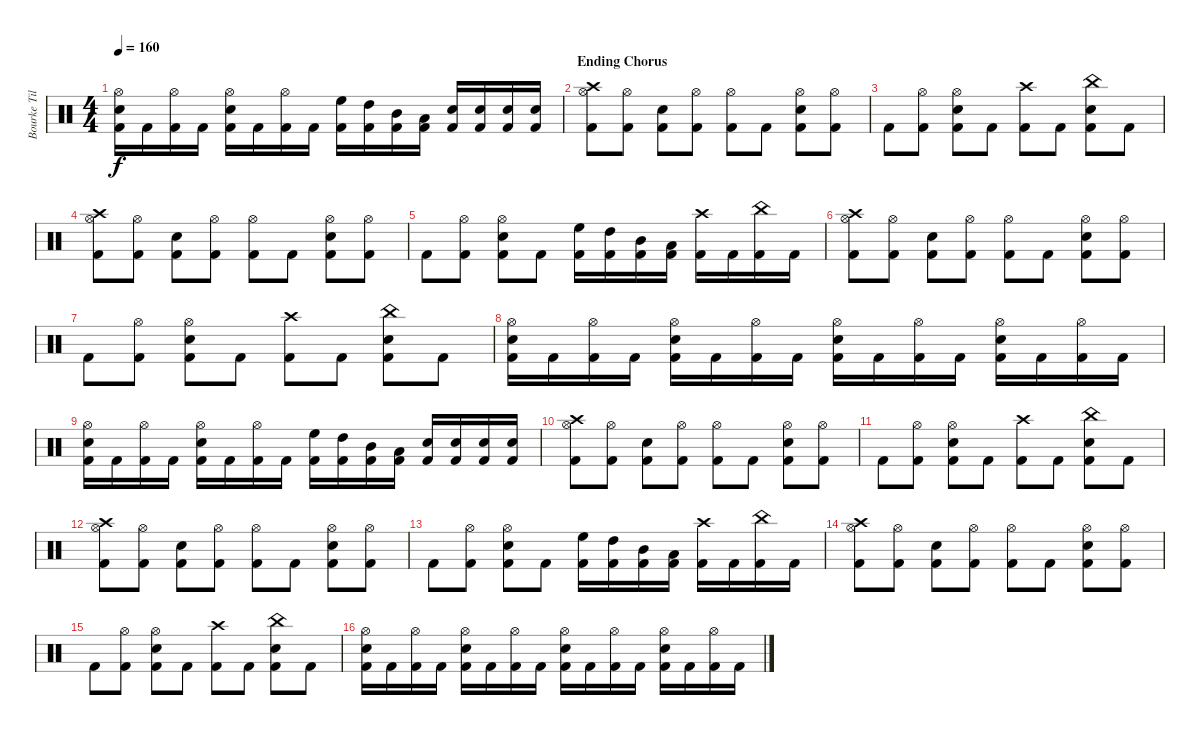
\track ("Bourke Tillman" "Bourke Til") {instrument percussion}
\staff {score}
\articulation defaults
\ts (4 4)
\tempo 160
\clef neutral
\ks c
("Hi-Hat (open)" "Electric Snare (hit)" "Kick (hit) 2").16{dy f} "Kick (hit) 2".16 ("Hi-Hat (open)" "Kick (hit) 2").16 "Kick (hit) 2".16 ("Hi-Hat (open)" "Electric Snare (hit)" "Kick (hit) 2").16 "Kick (hit) 2".16 ("Hi-Hat (open)" "Kick (hit) 2").16 "Kick (hit) 2".16 ("High Floor Tom (hit)" "Kick (hit) 2").16 ("High Tom (hit)" "Kick (hit) 2").16 ("Mid Tom (hit)" "Kick (hit) 2").16 ("Low Tom (hit)" "Kick (hit) 2").16 ("Electric Snare (hit)" "Kick (hit) 2").16 ("Electric Snare (hit)" "Kick (hit) 2").16 ("Electric Snare (hit)" "Kick (hit) 2").16 ("Electric Snare (hit)" "Kick (hit) 2").16 |
\section ("" "Ending Chorus")
("Crash high (hit)" "Hi-Hat (open)" "Kick (hit) 2").8 ("Hi-Hat (open)" "Kick (hit) 2").8 ("Electric Snare (hit)" "Kick (hit) 2").8 ("Hi-Hat (open)" "Kick (hit) 2").8 ("Hi-Hat (open)" "Kick (hit) 2").8 "Kick (hit) 2".8 ("Hi-Hat (open)" "Electric Snare (hit)" "Kick (hit) 2").8 ("Hi-Hat (open)" "Kick (hit) 2").8 |
"Kick (hit) 2".8 ("Hi-Hat (open)" "Kick (hit) 2").8 ("Hi-Hat (open)" "Electric Snare (hit)" "Kick (hit) 2").8 "Kick (hit) 2".8 ("Crash high (hit)" "Kick (hit) 2").8 "Kick (hit) 2".8 ("China (hit)" "Electric Snare (hit)" "Kick (hit) 2").8 "Kick (hit) 2".8 |
("Crash high (hit)" "Hi-Hat (open)" "Kick (hit) 2").8 ("Hi-Hat (open)" "Kick (hit) 2").8 ("Electric Snare (hit)" "Kick (hit) 2").8 ("Hi-Hat (open)" "Kick (hit) 2").8 ("Hi-Hat (open)" "Kick (hit) 2").8 "Kick (hit) 2".8 ("Hi-Hat (open)" "Electric Snare (hit)" "Kick (hit) 2").8 ("Hi-Hat (open)" "Kick (hit) 2").8 |
"Kick (hit) 2".8 ("Hi-Hat (open)" "Kick (hit) 2").8 ("Hi-Hat (open)" "Electric Snare (hit)" "Kick (hit) 2").8 "Kick (hit) 2".8 ("High Floor Tom (hit)" "Kick (hit) 2").16 ("High Tom (hit)" "Kick (hit) 2").16 ("Mid Tom (hit)" "Kick (hit) 2").16 ("Low Tom (hit)" "Kick (hit) 2").16 ("Crash high (hit)" "Kick (hit) 2").16 "Kick (hit) 2".16 ("China (hit)" "Kick (hit) 2").16 "Kick (hit) 2".16 |
("Crash high (hit)" "Hi-Hat (open)" "Kick (hit) 2").8 ("Hi-Hat (open)" "Kick (hit) 2").8 ("Electric Snare (hit)" "Kick (hit) 2").8 ("Hi-Hat (open)" "Kick (hit) 2").8 ("Hi-Hat (open)" "Kick (hit) 2").8 "Kick (hit) 2".8 ("Hi-Hat (open)" "Electric Snare (hit)" "Kick (hit) 2").8 ("Hi-Hat (open)" "Kick (hit) 2").8 |
"Kick (hit) 2".8 ("Hi-Hat (open)" "Kick (hit) 2").8 ("Hi-Hat (open)" "Electric Snare (hit)" "Kick (hit) 2").8 "Kick (hit) 2".8 ("Crash high (hit)" "Kick (hit) 2").8 "Kick (hit) 2".8 ("China (hit)" "Electric Snare (hit)" "Kick (hit) 2").8 "Kick (hit) 2".8 |
("Hi-Hat (open)" "Electric Snare (hit)" "Kick (hit) 2").16 "Kick (hit) 2".16 ("Hi-Hat (open)" "Kick (hit) 2").16 "Kick (hit) 2".16 ("Hi-Hat (open)" "Electric Snare (hit)" "Kick (hit) 2").16 "Kick (hit) 2".16 ("Hi-Hat (open)" "Kick (hit) 2").16 "Kick (hit) 2".16 ("Hi-Hat (open)" "Electric Snare (hit)" "Kick (hit) 2").16 "Kick (hit) 2".16 ("Hi-Hat (open)" "Kick (hit) 2").16 "Kick (hit) 2".16 ("Hi-Hat (open)" "Electric Snare (hit)" "Kick (hit) 2").16 "Kick (hit) 2".16 ("Hi-Hat (open)" "Kick (hit) 2").16 "Kick (hit) 2".16 |
("Hi-Hat (open)" "Electric Snare (hit)" "Kick (hit) 2").16 "Kick (hit) 2".16 ("Hi-Hat (open)" "Kick (hit) 2").16 "Kick (hit) 2".16 ("Hi-Hat (open)" "Electric Snare (hit)" "Kick (hit) 2").16 "Kick (hit) 2".16 ("Hi-Hat (open)" "Kick (hit) 2").16 "Kick (hit) 2".16 ("High Floor Tom (hit)" "Kick (hit) 2").16 ("High Tom (hit)" "Kick (hit) 2").16 ("Mid Tom (hit)" "Kick (hit) 2").16 ("Low Tom (hit)" "Kick (hit) 2").16 ("Electric Snare (hit)" "Kick (hit) 2").16 ("Electric Snare (hit)" "Kick (hit) 2").16 ("Electric Snare (hit)" "Kick (hit) 2").16 ("Electric Snare (hit)" "Kick (hit) 2").16 |
("Crash high (hit)" "Hi-Hat (open)" "Kick (hit) 2").8 ("Hi-Hat (open)" "Kick (hit) 2").8 ("Electric Snare (hit)" "Kick (hit) 2").8 ("Hi-Hat (open)" "Kick (hit) 2").8 ("Hi-Hat (open)" "Kick (hit) 2").8 "Kick (hit) 2".8 ("Hi-Hat (open)" "Electric Snare (hit)" "Kick (hit) 2").8 ("Hi-Hat (open)" "Kick (hit) 2").8 |
"Kick (hit) 2".8 ("Hi-Hat (open)" "Kick (hit) 2").8 ("Hi-Hat (open)" "Electric Snare (hit)" "Kick (hit) 2").8 "Kick (hit) 2".8 ("Crash high (hit)" "Kick (hit) 2").8 "Kick (hit) 2".8 ("China (hit)" "Electric Snare (hit)" "Kick (hit) 2").8 "Kick (hit) 2".8 |
("Crash high (hit)" "Hi-Hat (open)" "Kick (hit) 2").8 ("Hi-Hat (open)" "Kick (hit) 2").8 ("Electric Snare (hit)" "Kick (hit) 2").8 ("Hi-Hat (open)" "Kick (hit) 2").8 ("Hi-Hat (open)" "Kick (hit) 2").8 "Kick (hit) 2".8 ("Hi-Hat (open)" "Electric Snare (hit)" "Kick (hit) 2").8 ("Hi-Hat (open)" "Kick (hit) 2").8 |
"Kick (hit) 2".8 ("Hi-Hat (open)" "Kick (hit) 2").8 ("Hi-Hat (open)" "Electric Snare (hit)" "Kick (hit) 2").8 "Kick (hit) 2".8 ("High Floor Tom (hit)" "Kick (hit) 2").16 ("High Tom (hit)" "Kick (hit) 2").16 ("Mid Tom (hit)" "Kick (hit) 2").16 ("Low Tom (hit)" "Kick (hit) 2").16 ("Crash high (hit)" "Kick (hit) 2").16 "Kick (hit) 2".16 ("China (hit)" "Kick (hit) 2").16 "Kick (hit) 2".16 |
("Crash high (hit)" "Hi-Hat (open)" "Kick (hit) 2").8 ("Hi-Hat (open)" "Kick (hit) 2").8 ("Electric Snare (hit)" "Kick (hit) 2").8 ("Hi-Hat (open)" "Kick (hit) 2").8 ("Hi-Hat (open)" "Kick (hit) 2").8 "Kick (hit) 2".8 ("Hi-Hat (open)" "Electric Snare (hit)" "Kick (hit) 2").8 ("Hi-Hat (open)" "Kick (hit) 2").8 |
"Kick (hit) 2".8 ("Hi-Hat (open)" "Kick (hit) 2").8 ("Hi-Hat (open)" "Electric Snare (hit)" "Kick (hit) 2").8 "Kick (hit) 2".8 ("Crash high (hit)" "Kick (hit) 2").8 "Kick (hit) 2".8 ("China (hit)" "Electric Snare (hit)" "Kick (hit) 2").8 "Kick (hit) 2".8 |
("Hi-Hat (open)" "Electric Snare (hit)" "Kick (hit) 2").16 "Kick (hit) 2".16 ("Hi-Hat (open)" "Kick (hit) 2").16 "Kick (hit) 2".16 ("Hi-Hat (open)" "Electric Snare (hit)" "Kick (hit) 2").16 "Kick (hit) 2".16 ("Hi-Hat (open)" "Kick (hit) 2").16 "Kick (hit) 2".16 ("Hi-Hat (open)" "Electric Snare (hit)" "Kick (hit) 2").16 "Kick (hit) 2".16 ("Hi-Hat (open)" "Kick (hit) 2").16 "Kick (hit) 2".16 ("Hi-Hat (open)" "Electric Snare (hit)" "Kick (hit) 2").16 "Kick (hit) 2".16 ("Hi-Hat (open)" "Kick (hit) 2").16 "Kick (hit) 2".16
